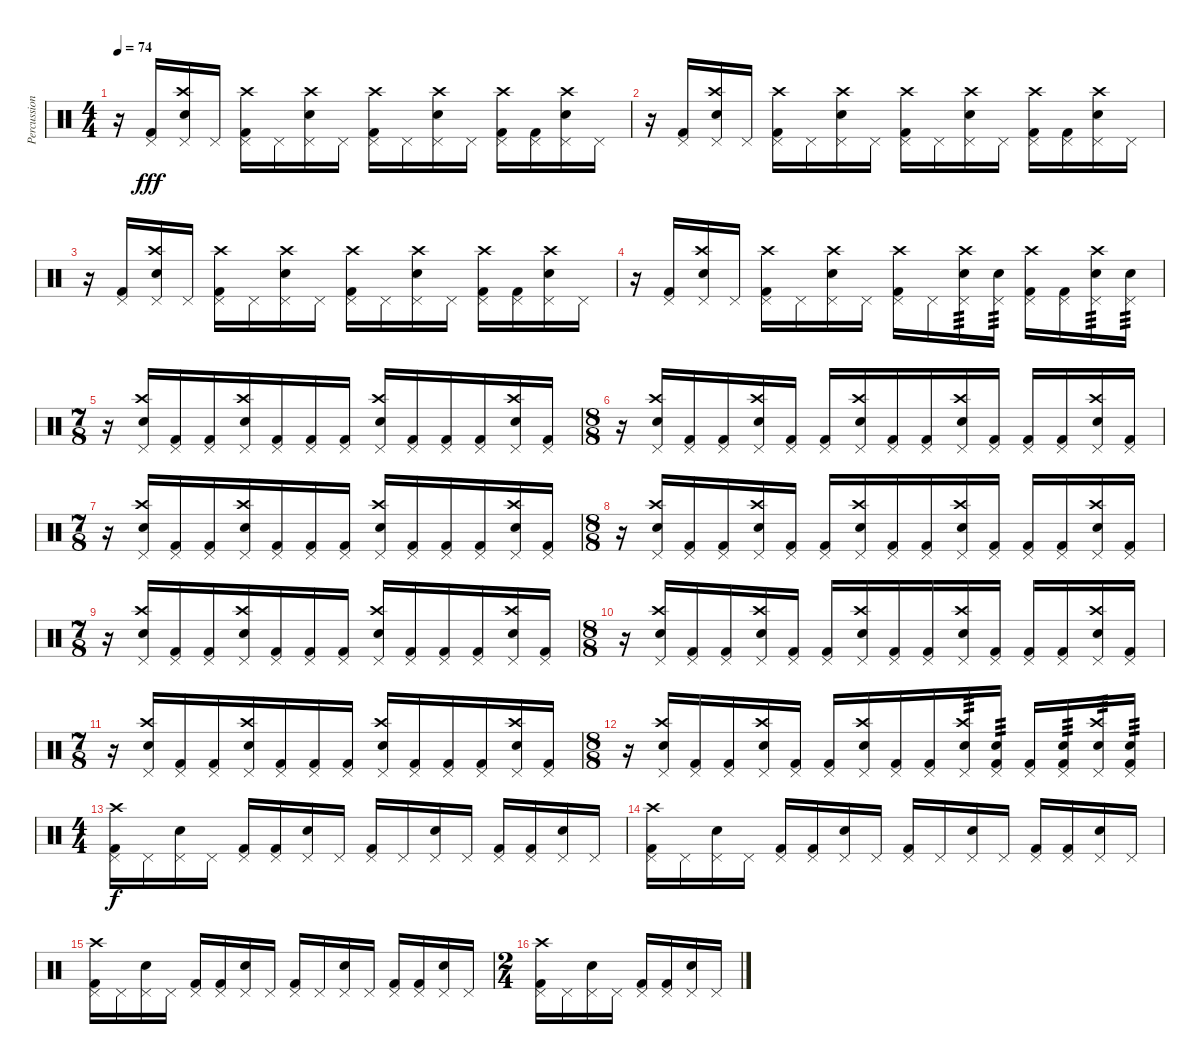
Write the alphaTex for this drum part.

\track ("Percussion" "Percussion") {instrument percussion}
\staff {score}
\articulation defaults
\ts (4 4)
\tempo 74
\clef neutral
\ks c
r.16{dy fff volume 0} ("Pedal Hi-Hat (hit)" "Kick (hit) 2").16{volume 13} ("Crash high (hit)" "Pedal Hi-Hat (hit)" "Electric Snare (hit)").16 "Pedal Hi-Hat (hit)".16 ("Crash high (hit)" "Pedal Hi-Hat (hit)" "Kick (hit) 2").16 "Pedal Hi-Hat (hit)".16 ("Crash high (hit)" "Pedal Hi-Hat (hit)" "Electric Snare (hit)").16 "Pedal Hi-Hat (hit)".16 ("Crash high (hit)" "Pedal Hi-Hat (hit)" "Kick (hit) 2").16 "Pedal Hi-Hat (hit)".16 ("Crash high (hit)" "Pedal Hi-Hat (hit)" "Electric Snare (hit)").16 "Pedal Hi-Hat (hit)".16 ("Crash high (hit)" "Pedal Hi-Hat (hit)" "Kick (hit) 2").16 ("Pedal Hi-Hat (hit)" "Kick (hit) 2").16 ("Crash high (hit)" "Pedal Hi-Hat (hit)" "Electric Snare (hit)").16 "Pedal Hi-Hat (hit)".16 |
r.16{volume 0} ("Pedal Hi-Hat (hit)" "Kick (hit) 2").16{volume 13} ("Crash high (hit)" "Pedal Hi-Hat (hit)" "Electric Snare (hit)").16 "Pedal Hi-Hat (hit)".16 ("Crash high (hit)" "Pedal Hi-Hat (hit)" "Kick (hit) 2").16 "Pedal Hi-Hat (hit)".16 ("Crash high (hit)" "Pedal Hi-Hat (hit)" "Electric Snare (hit)").16 "Pedal Hi-Hat (hit)".16 ("Crash high (hit)" "Pedal Hi-Hat (hit)" "Kick (hit) 2").16 "Pedal Hi-Hat (hit)".16 ("Crash high (hit)" "Pedal Hi-Hat (hit)" "Electric Snare (hit)").16 "Pedal Hi-Hat (hit)".16 ("Crash high (hit)" "Pedal Hi-Hat (hit)" "Kick (hit) 2").16 ("Pedal Hi-Hat (hit)" "Kick (hit) 2").16 ("Crash high (hit)" "Pedal Hi-Hat (hit)" "Electric Snare (hit)").16 "Pedal Hi-Hat (hit)".16 |
r.16{volume 0} ("Pedal Hi-Hat (hit)" "Kick (hit) 2").16{volume 13} ("Crash high (hit)" "Pedal Hi-Hat (hit)" "Electric Snare (hit)").16 "Pedal Hi-Hat (hit)".16 ("Crash high (hit)" "Pedal Hi-Hat (hit)" "Kick (hit) 2").16 "Pedal Hi-Hat (hit)".16 ("Crash high (hit)" "Pedal Hi-Hat (hit)" "Electric Snare (hit)").16 "Pedal Hi-Hat (hit)".16 ("Crash high (hit)" "Pedal Hi-Hat (hit)" "Kick (hit) 2").16 "Pedal Hi-Hat (hit)".16 ("Crash high (hit)" "Pedal Hi-Hat (hit)" "Electric Snare (hit)").16 "Pedal Hi-Hat (hit)".16 ("Crash high (hit)" "Pedal Hi-Hat (hit)" "Kick (hit) 2").16 ("Pedal Hi-Hat (hit)" "Kick (hit) 2").16 ("Crash high (hit)" "Pedal Hi-Hat (hit)" "Electric Snare (hit)").16 "Pedal Hi-Hat (hit)".16 |
r.16{volume 0} ("Pedal Hi-Hat (hit)" "Kick (hit) 2").16{volume 13} ("Crash high (hit)" "Pedal Hi-Hat (hit)" "Electric Snare (hit)").16 "Pedal Hi-Hat (hit)".16 ("Crash high (hit)" "Pedal Hi-Hat (hit)" "Kick (hit) 2").16 "Pedal Hi-Hat (hit)".16 ("Crash high (hit)" "Pedal Hi-Hat (hit)" "Electric Snare (hit)").16 "Pedal Hi-Hat (hit)".16 ("Crash high (hit)" "Pedal Hi-Hat (hit)" "Kick (hit) 2").16 "Pedal Hi-Hat (hit)".16 ("Crash high (hit)" "Pedal Hi-Hat (hit)" "Electric Snare (hit)").16{tp 3} ("Pedal Hi-Hat (hit)" "Electric Snare (hit)").16{tp 3} ("Crash high (hit)" "Pedal Hi-Hat (hit)" "Kick (hit) 2").16 ("Pedal Hi-Hat (hit)" "Kick (hit) 2").16 ("Crash high (hit)" "Pedal Hi-Hat (hit)" "Electric Snare (hit)").16{tp 3} ("Pedal Hi-Hat (hit)" "Electric Snare (hit)").16{tp 3} |
\ts (7 8)
r.16{volume 0} ("Crash high (hit)" "Pedal Hi-Hat (hit)" "Electric Snare (hit)").16{volume 13} ("Pedal Hi-Hat (hit)" "Kick (hit) 2").16 ("Pedal Hi-Hat (hit)" "Kick (hit) 2").16 ("Crash high (hit)" "Pedal Hi-Hat (hit)" "Electric Snare (hit)").16 ("Pedal Hi-Hat (hit)" "Kick (hit) 2").16 ("Pedal Hi-Hat (hit)" "Kick (hit) 2").16 ("Pedal Hi-Hat (hit)" "Kick (hit) 2").16 ("Crash high (hit)" "Pedal Hi-Hat (hit)" "Electric Snare (hit)").16 ("Pedal Hi-Hat (hit)" "Kick (hit) 2").16 ("Pedal Hi-Hat (hit)" "Kick (hit) 2").16 ("Pedal Hi-Hat (hit)" "Kick (hit) 2").16 ("Crash high (hit)" "Pedal Hi-Hat (hit)" "Electric Snare (hit)").16 ("Pedal Hi-Hat (hit)" "Kick (hit) 2").16 |
\ts (8 8)
r.16{volume 0} ("Crash high (hit)" "Pedal Hi-Hat (hit)" "Electric Snare (hit)").16{volume 13} ("Pedal Hi-Hat (hit)" "Kick (hit) 2").16 ("Pedal Hi-Hat (hit)" "Kick (hit) 2").16 ("Crash high (hit)" "Pedal Hi-Hat (hit)" "Electric Snare (hit)").16 ("Pedal Hi-Hat (hit)" "Kick (hit) 2").16 ("Pedal Hi-Hat (hit)" "Kick (hit) 2").16 ("Crash high (hit)" "Pedal Hi-Hat (hit)" "Electric Snare (hit)").16 ("Pedal Hi-Hat (hit)" "Kick (hit) 2").16 ("Pedal Hi-Hat (hit)" "Kick (hit) 2").16 ("Crash high (hit)" "Pedal Hi-Hat (hit)" "Electric Snare (hit)").16 ("Pedal Hi-Hat (hit)" "Kick (hit) 2").16 ("Pedal Hi-Hat (hit)" "Kick (hit) 2").16 ("Pedal Hi-Hat (hit)" "Kick (hit) 2").16 ("Crash high (hit)" "Pedal Hi-Hat (hit)" "Electric Snare (hit)").16 ("Pedal Hi-Hat (hit)" "Kick (hit) 2").16 |
\ts (7 8)
r.16{volume 0} ("Crash high (hit)" "Pedal Hi-Hat (hit)" "Electric Snare (hit)").16{volume 13} ("Pedal Hi-Hat (hit)" "Kick (hit) 2").16 ("Pedal Hi-Hat (hit)" "Kick (hit) 2").16 ("Crash high (hit)" "Pedal Hi-Hat (hit)" "Electric Snare (hit)").16 ("Pedal Hi-Hat (hit)" "Kick (hit) 2").16 ("Pedal Hi-Hat (hit)" "Kick (hit) 2").16 ("Pedal Hi-Hat (hit)" "Kick (hit) 2").16 ("Crash high (hit)" "Pedal Hi-Hat (hit)" "Electric Snare (hit)").16 ("Pedal Hi-Hat (hit)" "Kick (hit) 2").16 ("Pedal Hi-Hat (hit)" "Kick (hit) 2").16 ("Pedal Hi-Hat (hit)" "Kick (hit) 2").16 ("Crash high (hit)" "Pedal Hi-Hat (hit)" "Electric Snare (hit)").16 ("Pedal Hi-Hat (hit)" "Kick (hit) 2").16 |
\ts (8 8)
r.16{volume 0} ("Crash high (hit)" "Pedal Hi-Hat (hit)" "Electric Snare (hit)").16{volume 13} ("Pedal Hi-Hat (hit)" "Kick (hit) 2").16 ("Pedal Hi-Hat (hit)" "Kick (hit) 2").16 ("Crash high (hit)" "Pedal Hi-Hat (hit)" "Electric Snare (hit)").16 ("Pedal Hi-Hat (hit)" "Kick (hit) 2").16 ("Pedal Hi-Hat (hit)" "Kick (hit) 2").16 ("Crash high (hit)" "Pedal Hi-Hat (hit)" "Electric Snare (hit)").16 ("Pedal Hi-Hat (hit)" "Kick (hit) 2").16 ("Pedal Hi-Hat (hit)" "Kick (hit) 2").16 ("Crash high (hit)" "Pedal Hi-Hat (hit)" "Electric Snare (hit)").16 ("Pedal Hi-Hat (hit)" "Kick (hit) 2").16 ("Pedal Hi-Hat (hit)" "Kick (hit) 2").16 ("Pedal Hi-Hat (hit)" "Kick (hit) 2").16 ("Crash high (hit)" "Pedal Hi-Hat (hit)" "Electric Snare (hit)").16 ("Pedal Hi-Hat (hit)" "Kick (hit) 2").16 |
\ts (7 8)
r.16{volume 0} ("Crash high (hit)" "Pedal Hi-Hat (hit)" "Electric Snare (hit)").16{volume 13} ("Pedal Hi-Hat (hit)" "Kick (hit) 2").16 ("Pedal Hi-Hat (hit)" "Kick (hit) 2").16 ("Crash high (hit)" "Pedal Hi-Hat (hit)" "Electric Snare (hit)").16 ("Pedal Hi-Hat (hit)" "Kick (hit) 2").16 ("Pedal Hi-Hat (hit)" "Kick (hit) 2").16 ("Pedal Hi-Hat (hit)" "Kick (hit) 2").16 ("Crash high (hit)" "Pedal Hi-Hat (hit)" "Electric Snare (hit)").16 ("Pedal Hi-Hat (hit)" "Kick (hit) 2").16 ("Pedal Hi-Hat (hit)" "Kick (hit) 2").16 ("Pedal Hi-Hat (hit)" "Kick (hit) 2").16 ("Crash high (hit)" "Pedal Hi-Hat (hit)" "Electric Snare (hit)").16 ("Pedal Hi-Hat (hit)" "Kick (hit) 2").16 |
\ts (8 8)
r.16{volume 0} ("Crash high (hit)" "Pedal Hi-Hat (hit)" "Electric Snare (hit)").16{volume 13} ("Pedal Hi-Hat (hit)" "Kick (hit) 2").16 ("Pedal Hi-Hat (hit)" "Kick (hit) 2").16 ("Crash high (hit)" "Pedal Hi-Hat (hit)" "Electric Snare (hit)").16 ("Pedal Hi-Hat (hit)" "Kick (hit) 2").16 ("Pedal Hi-Hat (hit)" "Kick (hit) 2").16 ("Crash high (hit)" "Pedal Hi-Hat (hit)" "Electric Snare (hit)").16 ("Pedal Hi-Hat (hit)" "Kick (hit) 2").16 ("Pedal Hi-Hat (hit)" "Kick (hit) 2").16 ("Crash high (hit)" "Pedal Hi-Hat (hit)" "Electric Snare (hit)").16 ("Pedal Hi-Hat (hit)" "Kick (hit) 2").16 ("Pedal Hi-Hat (hit)" "Kick (hit) 2").16 ("Pedal Hi-Hat (hit)" "Kick (hit) 2").16 ("Crash high (hit)" "Pedal Hi-Hat (hit)" "Electric Snare (hit)").16 ("Pedal Hi-Hat (hit)" "Kick (hit) 2").16 |
\ts (7 8)
r.16{volume 0} ("Crash high (hit)" "Pedal Hi-Hat (hit)" "Electric Snare (hit)").16{volume 13} ("Pedal Hi-Hat (hit)" "Kick (hit) 2").16 ("Pedal Hi-Hat (hit)" "Kick (hit) 2").16 ("Crash high (hit)" "Pedal Hi-Hat (hit)" "Electric Snare (hit)").16 ("Pedal Hi-Hat (hit)" "Kick (hit) 2").16 ("Pedal Hi-Hat (hit)" "Kick (hit) 2").16 ("Pedal Hi-Hat (hit)" "Kick (hit) 2").16 ("Crash high (hit)" "Pedal Hi-Hat (hit)" "Electric Snare (hit)").16 ("Pedal Hi-Hat (hit)" "Kick (hit) 2").16 ("Pedal Hi-Hat (hit)" "Kick (hit) 2").16 ("Pedal Hi-Hat (hit)" "Kick (hit) 2").16 ("Crash high (hit)" "Pedal Hi-Hat (hit)" "Electric Snare (hit)").16 ("Pedal Hi-Hat (hit)" "Kick (hit) 2").16 |
\ts (8 8)
r.16{volume 0} ("Crash high (hit)" "Pedal Hi-Hat (hit)" "Electric Snare (hit)").16{volume 13} ("Pedal Hi-Hat (hit)" "Kick (hit) 2").16 ("Pedal Hi-Hat (hit)" "Kick (hit) 2").16 ("Crash high (hit)" "Pedal Hi-Hat (hit)" "Electric Snare (hit)").16 ("Pedal Hi-Hat (hit)" "Kick (hit) 2").16 ("Pedal Hi-Hat (hit)" "Kick (hit) 2").16 ("Crash high (hit)" "Pedal Hi-Hat (hit)" "Electric Snare (hit)").16 ("Pedal Hi-Hat (hit)" "Kick (hit) 2").16 ("Pedal Hi-Hat (hit)" "Kick (hit) 2").16 ("Crash high (hit)" "Pedal Hi-Hat (hit)" "Electric Snare (hit)").16{tp 3} ("Pedal Hi-Hat (hit)" "Electric Snare (hit)" "Kick (hit) 2").16{tp 3} ("Pedal Hi-Hat (hit)" "Kick (hit) 2").16 ("Pedal Hi-Hat (hit)" "Electric Snare (hit)" "Kick (hit) 2").16{tp 3} ("Crash high (hit)" "Pedal Hi-Hat (hit)" "Electric Snare (hit)").16{tp 3} ("Pedal Hi-Hat (hit)" "Electric Snare (hit)" "Kick (hit) 2").16{tp 3} |
\ts (4 4)
("Crash high (hit)" "Pedal Hi-Hat (hit)" "Kick (hit) 2").16{dy f} "Pedal Hi-Hat (hit)".16 ("Pedal Hi-Hat (hit)" "Electric Snare (hit)").16 "Pedal Hi-Hat (hit)".16 ("Pedal Hi-Hat (hit)" "Kick (hit) 2").16 ("Pedal Hi-Hat (hit)" "Kick (hit) 2").16 ("Pedal Hi-Hat (hit)" "Electric Snare (hit)").16 "Pedal Hi-Hat (hit)".16 ("Pedal Hi-Hat (hit)" "Kick (hit) 2").16 "Pedal Hi-Hat (hit)".16 ("Pedal Hi-Hat (hit)" "Electric Snare (hit)").16 "Pedal Hi-Hat (hit)".16 ("Pedal Hi-Hat (hit)" "Kick (hit) 2").16 ("Pedal Hi-Hat (hit)" "Kick (hit) 2").16 ("Pedal Hi-Hat (hit)" "Electric Snare (hit)").16 "Pedal Hi-Hat (hit)".16 |
("Crash high (hit)" "Pedal Hi-Hat (hit)" "Kick (hit) 2").16 "Pedal Hi-Hat (hit)".16 ("Pedal Hi-Hat (hit)" "Electric Snare (hit)").16 "Pedal Hi-Hat (hit)".16 ("Pedal Hi-Hat (hit)" "Kick (hit) 2").16 ("Pedal Hi-Hat (hit)" "Kick (hit) 2").16 ("Pedal Hi-Hat (hit)" "Electric Snare (hit)").16 "Pedal Hi-Hat (hit)".16 ("Pedal Hi-Hat (hit)" "Kick (hit) 2").16 "Pedal Hi-Hat (hit)".16 ("Pedal Hi-Hat (hit)" "Electric Snare (hit)").16 "Pedal Hi-Hat (hit)".16 ("Pedal Hi-Hat (hit)" "Kick (hit) 2").16 ("Pedal Hi-Hat (hit)" "Kick (hit) 2").16 ("Pedal Hi-Hat (hit)" "Electric Snare (hit)").16 "Pedal Hi-Hat (hit)".16 |
("Crash high (hit)" "Pedal Hi-Hat (hit)" "Kick (hit) 2").16 "Pedal Hi-Hat (hit)".16 ("Pedal Hi-Hat (hit)" "Electric Snare (hit)").16 "Pedal Hi-Hat (hit)".16 ("Pedal Hi-Hat (hit)" "Kick (hit) 2").16 ("Pedal Hi-Hat (hit)" "Kick (hit) 2").16 ("Pedal Hi-Hat (hit)" "Electric Snare (hit)").16 "Pedal Hi-Hat (hit)".16 ("Pedal Hi-Hat (hit)" "Kick (hit) 2").16 "Pedal Hi-Hat (hit)".16 ("Pedal Hi-Hat (hit)" "Electric Snare (hit)").16 "Pedal Hi-Hat (hit)".16 ("Pedal Hi-Hat (hit)" "Kick (hit) 2").16 ("Pedal Hi-Hat (hit)" "Kick (hit) 2").16 ("Pedal Hi-Hat (hit)" "Electric Snare (hit)").16 "Pedal Hi-Hat (hit)".16 |
\ts (2 4)
("Crash high (hit)" "Pedal Hi-Hat (hit)" "Kick (hit) 2").16 "Pedal Hi-Hat (hit)".16 ("Pedal Hi-Hat (hit)" "Electric Snare (hit)").16 "Pedal Hi-Hat (hit)".16 ("Pedal Hi-Hat (hit)" "Kick (hit) 2").16 ("Pedal Hi-Hat (hit)" "Kick (hit) 2").16 ("Pedal Hi-Hat (hit)" "Electric Snare (hit)").16 "Pedal Hi-Hat (hit)".16
